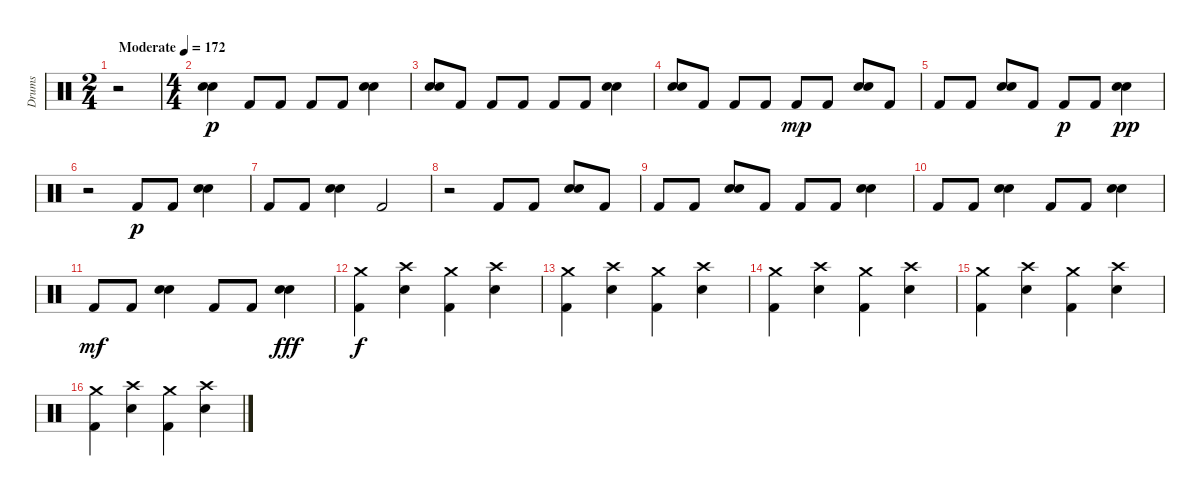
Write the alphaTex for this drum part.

\track ("Drums" "Drums") {instrument percussion}
\staff {score}
\articulation defaults
\ts (2 4)
\tempo (172 "Moderate")
\clef neutral
\ks c
r.2{dy p} |
\ts (4 4)
("Electric Snare (hit)" "Snare (hit) 2").4 "Kick (hit) 2".8 "Kick (hit) 2".8 "Kick (hit) 2".8 "Kick (hit) 2".8 ("Snare (hit) 2" "Electric Snare (hit)").4 |
("Electric Snare (hit)" "Snare (hit) 2").8 "Kick (hit) 2".8 "Kick (hit) 2".8 "Kick (hit) 2".8 "Kick (hit) 2".8 "Kick (hit) 2".8 ("Electric Snare (hit)" "Snare (hit) 2").4 |
("Electric Snare (hit)" "Snare (hit) 2").8 "Kick (hit) 2".8 "Kick (hit) 2".8 "Kick (hit) 2".8 "Kick (hit) 2".8{dy mp} "Kick (hit) 2".8 ("Electric Snare (hit)" "Snare (hit) 2").8 "Kick (hit) 2".8 |
"Kick (hit) 2".8 "Kick (hit) 2".8 ("Electric Snare (hit)" "Snare (hit) 2").8 "Kick (hit) 2".8 "Kick (hit) 2".8{dy p} "Kick (hit) 2".8 ("Electric Snare (hit)" "Snare (hit) 2").4{dy pp} |
r.2 "Kick (hit) 2".8{dy p} "Kick (hit) 2".8 ("Electric Snare (hit)" "Snare (hit) 2").4 |
"Kick (hit) 2".8 "Kick (hit) 2".8 ("Electric Snare (hit)" "Snare (hit) 2").4 "Kick (hit) 2".2 |
r.2 "Kick (hit) 2".8 "Kick (hit) 2".8 ("Electric Snare (hit)" "Snare (hit) 2").8 "Kick (hit) 2".8 |
"Kick (hit) 2".8 "Kick (hit) 2".8 ("Electric Snare (hit)" "Snare (hit) 2").8 "Kick (hit) 2".8 "Kick (hit) 2".8 "Kick (hit) 2".8 ("Electric Snare (hit)" "Snare (hit) 2").4 |
"Kick (hit) 2".8 "Kick (hit) 2".8 ("Electric Snare (hit)" "Snare (hit) 2").4 "Kick (hit) 2".8 "Kick (hit) 2".8 ("Electric Snare (hit)" "Snare (hit) 2").4 |
"Kick (hit) 2".8{dy mf} "Kick (hit) 2".8 ("Electric Snare (hit)" "Snare (hit) 2").4 "Kick (hit) 2".8 "Kick (hit) 2".8 ("Electric Snare (hit)" "Snare (hit) 2").4{dy fff} |
("Crash medium (hit)" "Kick (hit) 2").4{dy f} ("Crash high (hit)" "Snare (hit) 2").4 ("Crash medium (hit)" "Kick (hit) 2").4 ("Crash high (hit)" "Snare (hit) 2").4 |
("Crash medium (hit)" "Kick (hit) 2").4 ("Crash high (hit)" "Snare (hit) 2").4 ("Crash medium (hit)" "Kick (hit) 2").4 ("Crash high (hit)" "Snare (hit) 2").4 |
("Crash medium (hit)" "Kick (hit) 2").4 ("Crash high (hit)" "Snare (hit) 2").4 ("Crash medium (hit)" "Kick (hit) 2").4 ("Crash high (hit)" "Snare (hit) 2").4 |
("Crash medium (hit)" "Kick (hit) 2").4 ("Crash high (hit)" "Snare (hit) 2").4 ("Crash medium (hit)" "Kick (hit) 2").4 ("Crash high (hit)" "Snare (hit) 2").4 |
("Crash medium (hit)" "Kick (hit) 2").4 ("Crash high (hit)" "Snare (hit) 2").4 ("Crash medium (hit)" "Kick (hit) 2").4 ("Snare (hit) 2" "Crash high (hit)").4
